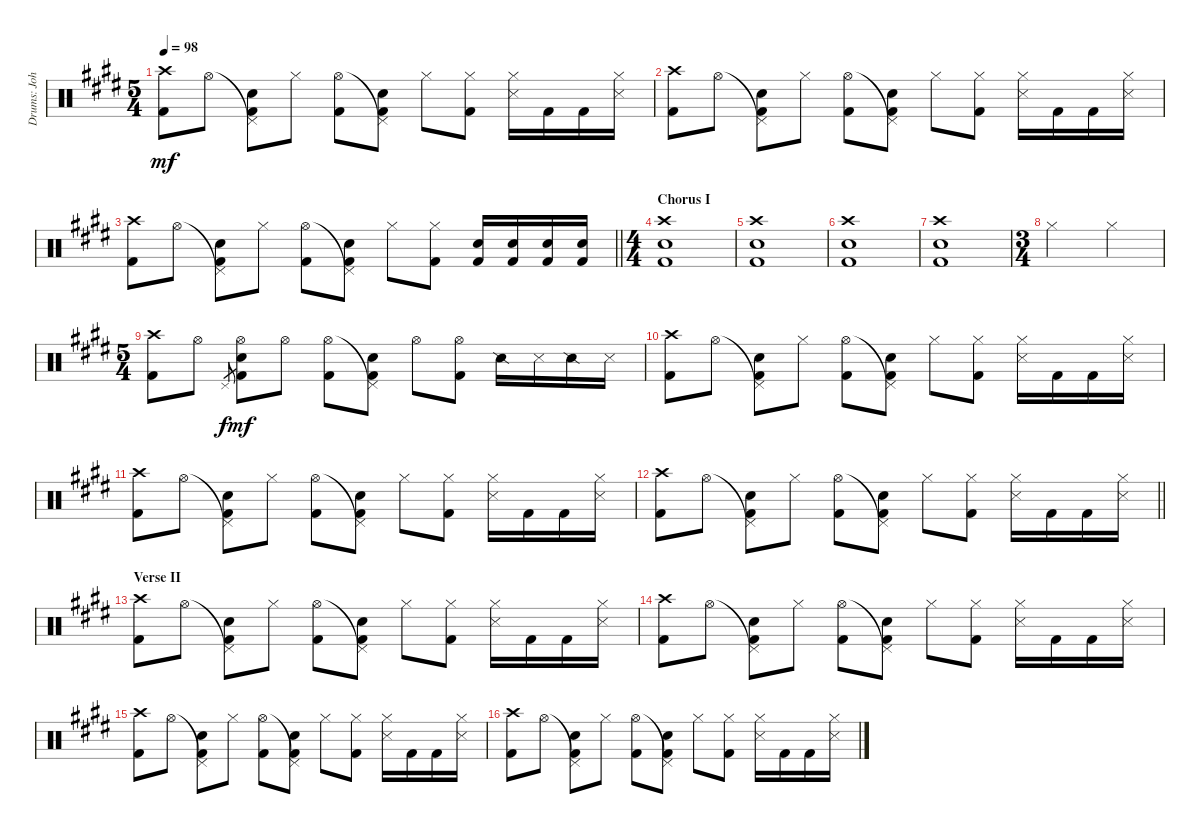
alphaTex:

\track ("Drums: John" "Drums: Joh") {instrument percussion}
\staff {score}
\articulation defaults
\ts (5 4)
\tempo 98
\clef neutral
\ks e
("Crash high (hit)" "Kick (hit) 2").8{dy mf} "Hi-Hat (open)".8 ("Pedal Hi-Hat (hit)"{t} "Snare (hit) 2" "Kick (hit) 2").8 "Hi-Hat (closed)".8 ("Hi-Hat (open)" "Kick (hit) 2").8 ("Pedal Hi-Hat (hit)"{t} "Snare (hit) 2" "Kick (hit) 2").8 "Hi-Hat (closed)".8 ("Hi-Hat (closed)" "Kick (hit) 2").8 ("Hi-Hat (closed)" "Snare (side stick) 3").16 "Kick (hit) 2".16 "Kick (hit) 2".16 ("Hi-Hat (closed)" "Snare (side stick) 3").16 |
("Crash high (hit)" "Kick (hit) 2").8 "Hi-Hat (open)".8 ("Pedal Hi-Hat (hit)"{t} "Snare (hit) 2" "Kick (hit) 2").8 "Hi-Hat (closed)".8 ("Hi-Hat (open)" "Kick (hit) 2").8 ("Pedal Hi-Hat (hit)"{t} "Snare (hit) 2" "Kick (hit) 2").8 "Hi-Hat (closed)".8 ("Hi-Hat (closed)" "Kick (hit) 2").8 ("Hi-Hat (closed)" "Snare (side stick) 3").16 "Kick (hit) 2".16 "Kick (hit) 2".16 ("Hi-Hat (closed)" "Snare (side stick) 3").16 |
\barLineRight lightlight
("Crash high (hit)" "Kick (hit) 2").8 "Hi-Hat (open)".8 ("Pedal Hi-Hat (hit)"{t} "Snare (hit) 2" "Kick (hit) 2").8 "Hi-Hat (closed)".8 ("Hi-Hat (open)" "Kick (hit) 2").8 ("Pedal Hi-Hat (hit)"{t} "Snare (hit) 2" "Kick (hit) 2").8 "Hi-Hat (closed)".8 ("Hi-Hat (closed)" "Kick (hit) 2").8 ("Electric Snare (hit)" "Kick (hit) 2").16 ("Electric Snare (hit)" "Kick (hit) 2").16 ("Electric Snare (hit)" "Kick (hit) 2").16 ("Electric Snare (hit)" "Kick (hit) 2").16 |
\ts (4 4)
\section ("" "Chorus I")
("Crash high (hit)" "Snare (hit) 2" "Kick (hit) 2").1 |
("Crash high (hit)" "Snare (hit) 2" "Kick (hit) 2").1 |
("Crash high (hit)" "Snare (hit) 2" "Kick (hit) 2").1 |
("Crash high (hit)" "Snare (hit) 2" "Kick (hit) 2").1 |
\ts (3 4)
"Hi-Hat (closed)".2 "Hi-Hat (closed)".4 |
\ts (5 4)
("Crash high (hit)" "Kick (hit) 2").8 "Hi-Hat (open)".8 "Pedal Hi-Hat (hit)".8{gr dy f} ("Hi-Hat (open)" "Snare (hit) 2" "Kick (hit) 2").8{dy mf} "Hi-Hat (open)".8 ("Hi-Hat (open)" "Kick (hit) 2").8 ("Pedal Hi-Hat (hit)"{t} "Snare (hit) 2" "Kick (hit) 2").8 "Hi-Hat (open)".8 ("Hi-Hat (open)" "Kick (hit) 2").8 "Snare (side stick) 2".16 "Snare (side stick) 3".16 "Snare (side stick) 2".16 "Snare (side stick) 3".16 |
("Crash high (hit)" "Kick (hit) 2").8 "Hi-Hat (open)".8 ("Pedal Hi-Hat (hit)"{t} "Snare (hit) 2" "Kick (hit) 2").8 "Hi-Hat (closed)".8 ("Hi-Hat (open)" "Kick (hit) 2").8 ("Pedal Hi-Hat (hit)"{t} "Snare (hit) 2" "Kick (hit) 2").8 "Hi-Hat (closed)".8 ("Hi-Hat (closed)" "Kick (hit) 2").8 ("Hi-Hat (closed)" "Snare (side stick) 3").16 "Kick (hit) 2".16 "Kick (hit) 2".16 ("Hi-Hat (closed)" "Snare (side stick) 3").16 |
("Crash high (hit)" "Kick (hit) 2").8 "Hi-Hat (open)".8 ("Pedal Hi-Hat (hit)"{t} "Snare (hit) 2" "Kick (hit) 2").8 "Hi-Hat (closed)".8 ("Hi-Hat (open)" "Kick (hit) 2").8 ("Pedal Hi-Hat (hit)"{t} "Snare (hit) 2" "Kick (hit) 2").8 "Hi-Hat (closed)".8 ("Hi-Hat (closed)" "Kick (hit) 2").8 ("Hi-Hat (closed)" "Snare (side stick) 3").16 "Kick (hit) 2".16 "Kick (hit) 2".16 ("Hi-Hat (closed)" "Snare (side stick) 3").16 |
\barLineRight lightlight
("Crash high (hit)" "Kick (hit) 2").8 "Hi-Hat (open)".8 ("Pedal Hi-Hat (hit)"{t} "Snare (hit) 2" "Kick (hit) 2").8 "Hi-Hat (closed)".8 ("Hi-Hat (open)" "Kick (hit) 2").8 ("Pedal Hi-Hat (hit)"{t} "Snare (hit) 2" "Kick (hit) 2").8 "Hi-Hat (closed)".8 ("Hi-Hat (closed)" "Kick (hit) 2").8 ("Hi-Hat (closed)" "Snare (side stick) 3").16 "Kick (hit) 2".16 "Kick (hit) 2".16 ("Hi-Hat (closed)" "Snare (side stick) 3").16 |
\section ("" "Verse II")
("Crash high (hit)" "Kick (hit) 2").8 "Hi-Hat (open)".8 ("Pedal Hi-Hat (hit)"{t} "Snare (hit) 2" "Kick (hit) 2").8 "Hi-Hat (closed)".8 ("Hi-Hat (open)" "Kick (hit) 2").8 ("Pedal Hi-Hat (hit)"{t} "Snare (hit) 2" "Kick (hit) 2").8 "Hi-Hat (closed)".8 ("Hi-Hat (closed)" "Kick (hit) 2").8 ("Hi-Hat (closed)" "Snare (side stick) 3").16 "Kick (hit) 2".16 "Kick (hit) 2".16 ("Hi-Hat (closed)" "Snare (side stick) 3").16 |
("Crash high (hit)" "Kick (hit) 2").8 "Hi-Hat (open)".8 ("Pedal Hi-Hat (hit)"{t} "Snare (hit) 2" "Kick (hit) 2").8 "Hi-Hat (closed)".8 ("Hi-Hat (open)" "Kick (hit) 2").8 ("Pedal Hi-Hat (hit)"{t} "Snare (hit) 2" "Kick (hit) 2").8 "Hi-Hat (closed)".8 ("Hi-Hat (closed)" "Kick (hit) 2").8 ("Hi-Hat (closed)" "Snare (side stick) 3").16 "Kick (hit) 2".16 "Kick (hit) 2".16 ("Hi-Hat (closed)" "Snare (side stick) 3").16 |
("Crash high (hit)" "Kick (hit) 2").8 "Hi-Hat (open)".8 ("Pedal Hi-Hat (hit)"{t} "Snare (hit) 2" "Kick (hit) 2").8 "Hi-Hat (closed)".8 ("Hi-Hat (open)" "Kick (hit) 2").8 ("Pedal Hi-Hat (hit)"{t} "Snare (hit) 2" "Kick (hit) 2").8 "Hi-Hat (closed)".8 ("Hi-Hat (closed)" "Kick (hit) 2").8 ("Hi-Hat (closed)" "Snare (side stick) 3").16 "Kick (hit) 2".16 "Kick (hit) 2".16 ("Hi-Hat (closed)" "Snare (side stick) 3").16 |
("Crash high (hit)" "Kick (hit) 2").8 "Hi-Hat (open)".8 ("Pedal Hi-Hat (hit)"{t} "Snare (hit) 2" "Kick (hit) 2").8 "Hi-Hat (closed)".8 ("Hi-Hat (open)" "Kick (hit) 2").8 ("Pedal Hi-Hat (hit)"{t} "Snare (hit) 2" "Kick (hit) 2").8 "Hi-Hat (closed)".8 ("Hi-Hat (closed)" "Kick (hit) 2").8 ("Hi-Hat (closed)" "Snare (side stick) 3").16 "Kick (hit) 2".16 "Kick (hit) 2".16 ("Hi-Hat (closed)" "Snare (side stick) 3").16
